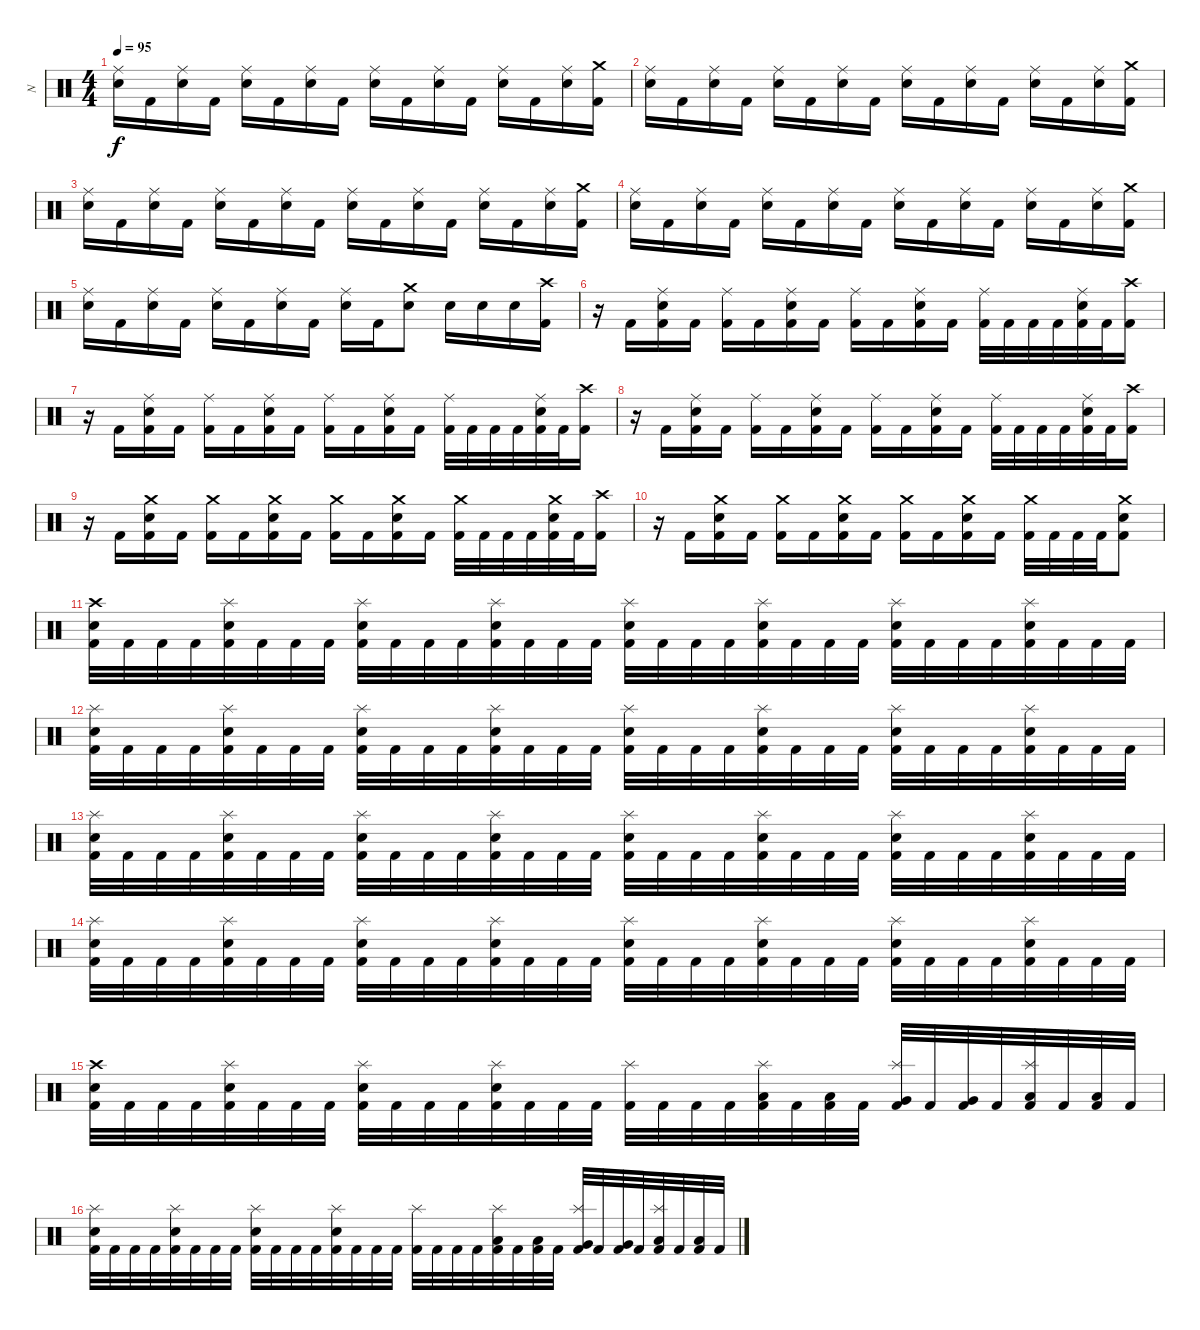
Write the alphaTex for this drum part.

\track ("N" "N") {instrument percussion}
\staff {score}
\articulation defaults
\ts (4 4)
\tempo 95
\clef neutral
\ks c
("Ride (middle)" "Electric Snare (hit)").16{dy f} "Kick (hit) 2".16 ("Ride (middle)" "Electric Snare (hit)").16 "Kick (hit) 2".16 ("Ride (middle)" "Electric Snare (hit)").16 "Kick (hit) 2".16 ("Ride (middle)" "Electric Snare (hit)").16 "Kick (hit) 2".16 ("Ride (middle)" "Electric Snare (hit)").16 "Kick (hit) 2".16 ("Ride (middle)" "Electric Snare (hit)").16 "Kick (hit) 2".16 ("Ride (middle)" "Electric Snare (hit)").16 "Kick (hit) 2".16 ("Ride (middle)" "Electric Snare (hit)").16 ("Crash medium (hit)" "Kick (hit) 2").16 |
("Ride (middle)" "Electric Snare (hit)").16 "Kick (hit) 2".16 ("Ride (middle)" "Electric Snare (hit)").16 "Kick (hit) 2".16 ("Ride (middle)" "Electric Snare (hit)").16 "Kick (hit) 2".16 ("Ride (middle)" "Electric Snare (hit)").16 "Kick (hit) 2".16 ("Ride (middle)" "Electric Snare (hit)").16 "Kick (hit) 2".16 ("Ride (middle)" "Electric Snare (hit)").16 "Kick (hit) 2".16 ("Ride (middle)" "Electric Snare (hit)").16 "Kick (hit) 2".16 ("Ride (middle)" "Electric Snare (hit)").16 ("Crash medium (hit)" "Kick (hit) 2").16 |
("Ride (middle)" "Electric Snare (hit)").16 "Kick (hit) 2".16 ("Ride (middle)" "Electric Snare (hit)").16 "Kick (hit) 2".16 ("Ride (middle)" "Electric Snare (hit)").16 "Kick (hit) 2".16 ("Ride (middle)" "Electric Snare (hit)").16 "Kick (hit) 2".16 ("Ride (middle)" "Electric Snare (hit)").16 "Kick (hit) 2".16 ("Ride (middle)" "Electric Snare (hit)").16 "Kick (hit) 2".16 ("Ride (middle)" "Electric Snare (hit)").16 "Kick (hit) 2".16 ("Ride (middle)" "Electric Snare (hit)").16 ("Crash medium (hit)" "Kick (hit) 2").16 |
("Ride (middle)" "Electric Snare (hit)").16 "Kick (hit) 2".16 ("Ride (middle)" "Electric Snare (hit)").16 "Kick (hit) 2".16 ("Ride (middle)" "Electric Snare (hit)").16 "Kick (hit) 2".16 ("Ride (middle)" "Electric Snare (hit)").16 "Kick (hit) 2".16 ("Ride (middle)" "Electric Snare (hit)").16 "Kick (hit) 2".16 ("Ride (middle)" "Electric Snare (hit)").16 "Kick (hit) 2".16 ("Ride (middle)" "Electric Snare (hit)").16 "Kick (hit) 2".16 ("Ride (middle)" "Electric Snare (hit)").16 ("Crash medium (hit)" "Kick (hit) 2").16 |
("Ride (middle)" "Electric Snare (hit)").16 "Kick (hit) 2".16 ("Ride (middle)" "Electric Snare (hit)").16 "Kick (hit) 2".16 ("Ride (middle)" "Electric Snare (hit)").16 "Kick (hit) 2".16 ("Ride (middle)" "Electric Snare (hit)").16 "Kick (hit) 2".16 ("Ride (middle)" "Electric Snare (hit)").16 "Kick (hit) 2".16 ("Crash medium (hit)" "Electric Snare (hit)").8 "Electric Snare (hit)".16 "Electric Snare (hit)".16 "Electric Snare (hit)".16 ("Crash high (hit)" "Kick (hit) 2").16 |
r.16 "Kick (hit) 2".16 ("Ride (middle)" "Electric Snare (hit)" "Kick (hit) 2").16 "Kick (hit) 2".16 ("Ride (middle)" "Kick (hit) 2").16 "Kick (hit) 2".16 ("Ride (middle)" "Electric Snare (hit)" "Kick (hit) 2").16 "Kick (hit) 2".16 ("Ride (middle)" "Kick (hit) 2").16 "Kick (hit) 2".16 ("Ride (middle)" "Electric Snare (hit)" "Kick (hit) 2").16 "Kick (hit) 2".16 ("Ride (middle)" "Kick (hit) 2").32 "Kick (hit) 2".32 "Kick (hit) 2".32 "Kick (hit) 2".32 ("Ride (middle)" "Electric Snare (hit)" "Kick (hit) 2").32 "Kick (hit) 2".32 ("Crash high (hit)" "Kick (hit) 2").16 |
r.16 "Kick (hit) 2".16 ("Ride (middle)" "Electric Snare (hit)" "Kick (hit) 2").16 "Kick (hit) 2".16 ("Ride (middle)" "Kick (hit) 2").16 "Kick (hit) 2".16 ("Ride (middle)" "Electric Snare (hit)" "Kick (hit) 2").16 "Kick (hit) 2".16 ("Ride (middle)" "Kick (hit) 2").16 "Kick (hit) 2".16 ("Ride (middle)" "Electric Snare (hit)" "Kick (hit) 2").16 "Kick (hit) 2".16 ("Ride (middle)" "Kick (hit) 2").32 "Kick (hit) 2".32 "Kick (hit) 2".32 "Kick (hit) 2".32 ("Ride (middle)" "Electric Snare (hit)" "Kick (hit) 2").32 "Kick (hit) 2".32 ("Crash high (hit)" "Kick (hit) 2").16 |
r.16 "Kick (hit) 2".16 ("Ride (middle)" "Electric Snare (hit)" "Kick (hit) 2").16 "Kick (hit) 2".16 ("Ride (middle)" "Kick (hit) 2").16 "Kick (hit) 2".16 ("Ride (middle)" "Electric Snare (hit)" "Kick (hit) 2").16 "Kick (hit) 2".16 ("Ride (middle)" "Kick (hit) 2").16 "Kick (hit) 2".16 ("Ride (middle)" "Electric Snare (hit)" "Kick (hit) 2").16 "Kick (hit) 2".16 ("Ride (middle)" "Kick (hit) 2").32 "Kick (hit) 2".32 "Kick (hit) 2".32 "Kick (hit) 2".32 ("Ride (middle)" "Electric Snare (hit)" "Kick (hit) 2").32 "Kick (hit) 2".32 ("Crash high (hit)" "Kick (hit) 2").16 |
r.16 "Kick (hit) 2".16 ("Crash medium (hit)" "Electric Snare (hit)" "Kick (hit) 2").16 "Kick (hit) 2".16 ("Crash medium (hit)" "Kick (hit) 2").16 "Kick (hit) 2".16 ("Crash medium (hit)" "Electric Snare (hit)" "Kick (hit) 2").16 "Kick (hit) 2".16 ("Crash medium (hit)" "Kick (hit) 2").16 "Kick (hit) 2".16 ("Crash medium (hit)" "Electric Snare (hit)" "Kick (hit) 2").16 "Kick (hit) 2".16 ("Crash medium (hit)" "Kick (hit) 2").32 "Kick (hit) 2".32 "Kick (hit) 2".32 "Kick (hit) 2".32 ("Crash medium (hit)" "Electric Snare (hit)" "Kick (hit) 2").32 "Kick (hit) 2".32 ("Crash high (hit)" "Kick (hit) 2").16 |
r.16 "Kick (hit) 2".16 ("Crash medium (hit)" "Electric Snare (hit)" "Kick (hit) 2").16 "Kick (hit) 2".16 ("Crash medium (hit)" "Kick (hit) 2").16 "Kick (hit) 2".16 ("Crash medium (hit)" "Electric Snare (hit)" "Kick (hit) 2").16 "Kick (hit) 2".16 ("Crash medium (hit)" "Kick (hit) 2").16 "Kick (hit) 2".16 ("Crash medium (hit)" "Electric Snare (hit)" "Kick (hit) 2").16 "Kick (hit) 2".16 ("Crash medium (hit)" "Kick (hit) 2").32 "Kick (hit) 2".32 "Kick (hit) 2".32 "Kick (hit) 2".32 ("Crash medium (hit)" "Electric Snare (hit)" "Kick (hit) 2").8 |
\section ("" " ")
("Crash high (hit)" "Electric Snare (hit)" "Kick (hit) 2").32 "Kick (hit) 2".32 "Kick (hit) 2".32 "Kick (hit) 2".32 ("Splash (hit)" "Electric Snare (hit)" "Kick (hit) 2").32 "Kick (hit) 2".32 "Kick (hit) 2".32 "Kick (hit) 2".32 ("Splash (hit)" "Electric Snare (hit)" "Kick (hit) 2").32 "Kick (hit) 2".32 "Kick (hit) 2".32 "Kick (hit) 2".32 ("Splash (hit)" "Electric Snare (hit)" "Kick (hit) 2").32 "Kick (hit) 2".32 "Kick (hit) 2".32 "Kick (hit) 2".32 ("Splash (hit)" "Electric Snare (hit)" "Kick (hit) 2").32 "Kick (hit) 2".32 "Kick (hit) 2".32 "Kick (hit) 2".32 ("Splash (hit)" "Electric Snare (hit)" "Kick (hit) 2").32 "Kick (hit) 2".32 "Kick (hit) 2".32 "Kick (hit) 2".32 ("Splash (hit)" "Electric Snare (hit)" "Kick (hit) 2").32 "Kick (hit) 2".32 "Kick (hit) 2".32 "Kick (hit) 2".32 ("Splash (hit)" "Electric Snare (hit)" "Kick (hit) 2").32 "Kick (hit) 2".32 "Kick (hit) 2".32 "Kick (hit) 2".32 |
("Splash (hit)" "Electric Snare (hit)" "Kick (hit) 2").32 "Kick (hit) 2".32 "Kick (hit) 2".32 "Kick (hit) 2".32 ("Splash (hit)" "Electric Snare (hit)" "Kick (hit) 2").32 "Kick (hit) 2".32 "Kick (hit) 2".32 "Kick (hit) 2".32 ("Splash (hit)" "Electric Snare (hit)" "Kick (hit) 2").32 "Kick (hit) 2".32 "Kick (hit) 2".32 "Kick (hit) 2".32 ("Splash (hit)" "Electric Snare (hit)" "Kick (hit) 2").32 "Kick (hit) 2".32 "Kick (hit) 2".32 "Kick (hit) 2".32 ("Splash (hit)" "Electric Snare (hit)" "Kick (hit) 2").32 "Kick (hit) 2".32 "Kick (hit) 2".32 "Kick (hit) 2".32 ("Splash (hit)" "Electric Snare (hit)" "Kick (hit) 2").32 "Kick (hit) 2".32 "Kick (hit) 2".32 "Kick (hit) 2".32 ("Splash (hit)" "Electric Snare (hit)" "Kick (hit) 2").32 "Kick (hit) 2".32 "Kick (hit) 2".32 "Kick (hit) 2".32 ("Splash (hit)" "Electric Snare (hit)" "Kick (hit) 2").32 "Kick (hit) 2".32 "Kick (hit) 2".32 "Kick (hit) 2".32 |
("Splash (hit)" "Electric Snare (hit)" "Kick (hit) 2").32 "Kick (hit) 2".32 "Kick (hit) 2".32 "Kick (hit) 2".32 ("Splash (hit)" "Electric Snare (hit)" "Kick (hit) 2").32 "Kick (hit) 2".32 "Kick (hit) 2".32 "Kick (hit) 2".32 ("Splash (hit)" "Electric Snare (hit)" "Kick (hit) 2").32 "Kick (hit) 2".32 "Kick (hit) 2".32 "Kick (hit) 2".32 ("Splash (hit)" "Electric Snare (hit)" "Kick (hit) 2").32 "Kick (hit) 2".32 "Kick (hit) 2".32 "Kick (hit) 2".32 ("Splash (hit)" "Electric Snare (hit)" "Kick (hit) 2").32 "Kick (hit) 2".32 "Kick (hit) 2".32 "Kick (hit) 2".32 ("Splash (hit)" "Electric Snare (hit)" "Kick (hit) 2").32 "Kick (hit) 2".32 "Kick (hit) 2".32 "Kick (hit) 2".32 ("Splash (hit)" "Electric Snare (hit)" "Kick (hit) 2").32 "Kick (hit) 2".32 "Kick (hit) 2".32 "Kick (hit) 2".32 ("Splash (hit)" "Electric Snare (hit)" "Kick (hit) 2").32 "Kick (hit) 2".32 "Kick (hit) 2".32 "Kick (hit) 2".32 |
("Splash (hit)" "Electric Snare (hit)" "Kick (hit) 2").32 "Kick (hit) 2".32 "Kick (hit) 2".32 "Kick (hit) 2".32 ("Splash (hit)" "Electric Snare (hit)" "Kick (hit) 2").32 "Kick (hit) 2".32 "Kick (hit) 2".32 "Kick (hit) 2".32 ("Splash (hit)" "Electric Snare (hit)" "Kick (hit) 2").32 "Kick (hit) 2".32 "Kick (hit) 2".32 "Kick (hit) 2".32 ("Splash (hit)" "Electric Snare (hit)" "Kick (hit) 2").32 "Kick (hit) 2".32 "Kick (hit) 2".32 "Kick (hit) 2".32 ("Splash (hit)" "Electric Snare (hit)" "Kick (hit) 2").32 "Kick (hit) 2".32 "Kick (hit) 2".32 "Kick (hit) 2".32 ("Splash (hit)" "Electric Snare (hit)" "Kick (hit) 2").32 "Kick (hit) 2".32 "Kick (hit) 2".32 "Kick (hit) 2".32 ("Splash (hit)" "Electric Snare (hit)" "Kick (hit) 2").32 "Kick (hit) 2".32 "Kick (hit) 2".32 "Kick (hit) 2".32 ("Splash (hit)" "Electric Snare (hit)" "Kick (hit) 2").32 "Kick (hit) 2".32 "Kick (hit) 2".32 "Kick (hit) 2".32 |
("Crash high (hit)" "Electric Snare (hit)" "Kick (hit) 2").32 "Kick (hit) 2".32 "Kick (hit) 2".32 "Kick (hit) 2".32 ("Splash (hit)" "Electric Snare (hit)" "Kick (hit) 2").32 "Kick (hit) 2".32 "Kick (hit) 2".32 "Kick (hit) 2".32 ("Splash (hit)" "Electric Snare (hit)" "Kick (hit) 2").32 "Kick (hit) 2".32 "Kick (hit) 2".32 "Kick (hit) 2".32 ("Splash (hit)" "Electric Snare (hit)" "Kick (hit) 2").32 "Kick (hit) 2".32 "Kick (hit) 2".32 "Kick (hit) 2".32 ("Splash (hit)" "Kick (hit) 2").32 "Kick (hit) 2".32 "Kick (hit) 2".32 "Kick (hit) 2".32 ("Splash (hit)" "Low Tom (hit)" "Kick (hit) 2").32 "Kick (hit) 2".32 ("Low Tom (hit)" "Kick (hit) 2").32 "Kick (hit) 2".32 ("Splash (hit)" "Very Low Tom (hit)" "Kick (hit) 2").32 "Kick (hit) 2".32 ("Very Low Tom (hit)" "Kick (hit) 2").32 "Kick (hit) 2".32 ("Splash (hit)" "Low Floor Tom (hit)" "Kick (hit) 2").32 "Kick (hit) 2".32 ("Low Floor Tom (hit)" "Kick (hit) 2").32 "Kick (hit) 2".32 |
("Splash (hit)" "Electric Snare (hit)" "Kick (hit) 2").32 "Kick (hit) 2".32 "Kick (hit) 2".32 "Kick (hit) 2".32 ("Splash (hit)" "Electric Snare (hit)" "Kick (hit) 2").32 "Kick (hit) 2".32 "Kick (hit) 2".32 "Kick (hit) 2".32 ("Splash (hit)" "Electric Snare (hit)" "Kick (hit) 2").32 "Kick (hit) 2".32 "Kick (hit) 2".32 "Kick (hit) 2".32 ("Splash (hit)" "Electric Snare (hit)" "Kick (hit) 2").32 "Kick (hit) 2".32 "Kick (hit) 2".32 "Kick (hit) 2".32 ("Splash (hit)" "Kick (hit) 2").32 "Kick (hit) 2".32 "Kick (hit) 2".32 "Kick (hit) 2".32 ("Splash (hit)" "Low Tom (hit)" "Kick (hit) 2").32 "Kick (hit) 2".32 ("Low Tom (hit)" "Kick (hit) 2").32 "Kick (hit) 2".32 ("Splash (hit)" "Very Low Tom (hit)" "Kick (hit) 2").32 "Kick (hit) 2".32 ("Very Low Tom (hit)" "Kick (hit) 2").32 "Kick (hit) 2".32 ("Splash (hit)" "Low Floor Tom (hit)" "Kick (hit) 2").32 "Kick (hit) 2".32 ("Low Floor Tom (hit)" "Kick (hit) 2").32 "Kick (hit) 2".32
